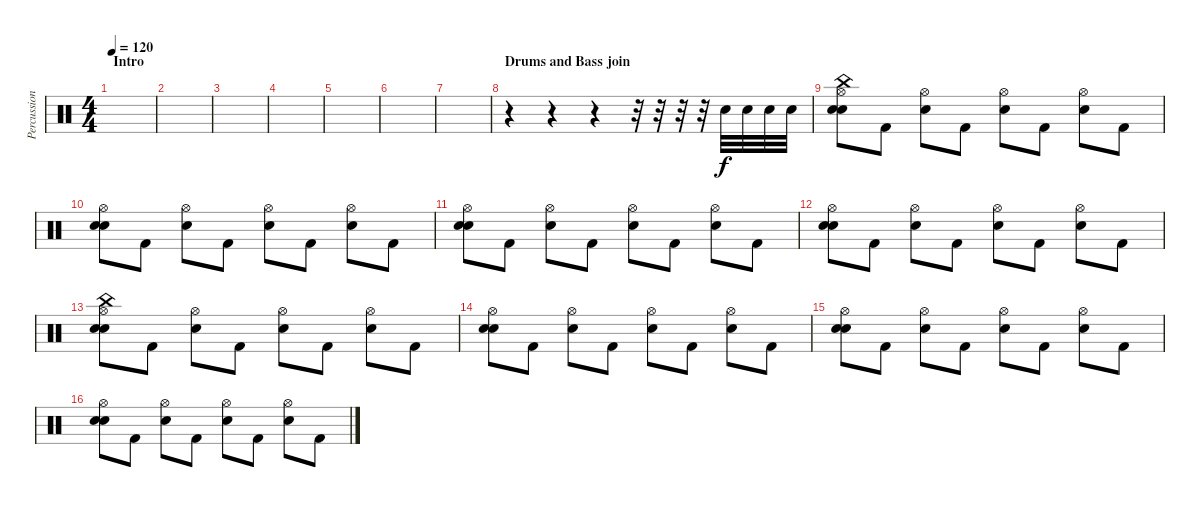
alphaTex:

\track ("Percussion" "Percussion") {instrument percussion}
\staff {score}
\articulation defaults
\ts (4 4)
\section ("" "Intro")
\tempo 120
\clef neutral
\ks c
|
|
|
|
|
|
|
\section ("" "Drums and Bass join")
r.4 r.4 r.4 r.32 r.32 r.32 r.32 "Electric Snare (hit)".32 "Electric Snare (hit)".32 "Electric Snare (hit)".32 "Electric Snare (hit)".32 |
("Snare (hit) 2" "China (hit)" "Hi-Hat (open)" "Electric Snare (hit)").8 "Kick (hit) 2".8 ("Hi-Hat (open)" "Electric Snare (hit)").8 "Kick (hit) 2".8 ("Hi-Hat (open)" "Electric Snare (hit)").8 "Kick (hit) 2".8 ("Hi-Hat (open)" "Electric Snare (hit)").8 "Kick (hit) 2".8 |
("Snare (hit) 2" "Hi-Hat (open)" "Electric Snare (hit)").8 "Kick (hit) 2".8 ("Hi-Hat (open)" "Electric Snare (hit)").8 "Kick (hit) 2".8 ("Hi-Hat (open)" "Electric Snare (hit)").8 "Kick (hit) 2".8 ("Hi-Hat (open)" "Electric Snare (hit)").8 "Kick (hit) 2".8 |
("Snare (hit) 2" "Hi-Hat (open)" "Electric Snare (hit)").8 "Kick (hit) 2".8 ("Hi-Hat (open)" "Electric Snare (hit)").8 "Kick (hit) 2".8 ("Hi-Hat (open)" "Electric Snare (hit)").8 "Kick (hit) 2".8 ("Hi-Hat (open)" "Electric Snare (hit)").8 "Kick (hit) 2".8 |
("Snare (hit) 2" "Hi-Hat (open)" "Electric Snare (hit)").8 "Kick (hit) 2".8 ("Hi-Hat (open)" "Electric Snare (hit)").8 "Kick (hit) 2".8 ("Hi-Hat (open)" "Electric Snare (hit)").8 "Kick (hit) 2".8 ("Hi-Hat (open)" "Electric Snare (hit)").8 "Kick (hit) 2".8 |
("Snare (hit) 2" "China (hit)" "Hi-Hat (open)" "Electric Snare (hit)").8 "Kick (hit) 2".8 ("Hi-Hat (open)" "Electric Snare (hit)").8 "Kick (hit) 2".8 ("Hi-Hat (open)" "Electric Snare (hit)").8 "Kick (hit) 2".8 ("Hi-Hat (open)" "Electric Snare (hit)").8 "Kick (hit) 2".8 |
("Snare (hit) 2" "Hi-Hat (open)" "Electric Snare (hit)").8 "Kick (hit) 2".8 ("Hi-Hat (open)" "Electric Snare (hit)").8 "Kick (hit) 2".8 ("Hi-Hat (open)" "Electric Snare (hit)").8 "Kick (hit) 2".8 ("Hi-Hat (open)" "Electric Snare (hit)").8 "Kick (hit) 2".8 |
("Snare (hit) 2" "Hi-Hat (open)" "Electric Snare (hit)").8 "Kick (hit) 2".8 ("Hi-Hat (open)" "Electric Snare (hit)").8 "Kick (hit) 2".8 ("Hi-Hat (open)" "Electric Snare (hit)").8 "Kick (hit) 2".8 ("Hi-Hat (open)" "Electric Snare (hit)").8 "Kick (hit) 2".8 |
("Snare (hit) 2" "Hi-Hat (open)" "Electric Snare (hit)").8 "Kick (hit) 2".8 ("Hi-Hat (open)" "Electric Snare (hit)").8 "Kick (hit) 2".8 ("Hi-Hat (open)" "Electric Snare (hit)").8 "Kick (hit) 2".8 ("Hi-Hat (open)" "Electric Snare (hit)").8 "Kick (hit) 2".8
